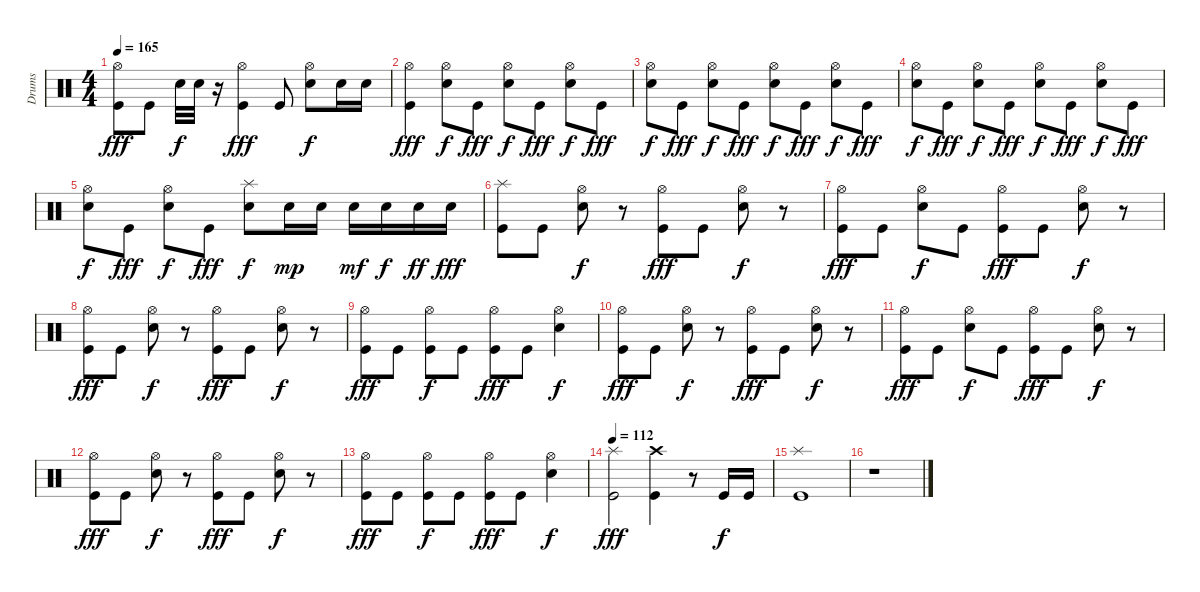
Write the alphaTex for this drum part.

\track ("Drums" "Drums") {instrument percussion}
\staff {score}
\articulation defaults
\ts (4 4)
\tempo 165
\clef neutral
\ks c
("Hi-Hat (open)" "Kick (hit)").8{dy fff} "Kick (hit)".8 "Snare (hit) 2".32{dy f} "Snare (hit) 2".32 r.16 ("Hi-Hat (open)" "Kick (hit)").4{dy fff} "Kick (hit)".8 ("Hi-Hat (open)" "Snare (hit) 2").8{dy f} "Snare (hit) 2".16 "Snare (hit) 2".16 |
("Hi-Hat (open)" "Kick (hit)").4{dy fff} ("Hi-Hat (open)" "Snare (hit) 2").8{dy f} "Kick (hit)".8{dy fff} ("Hi-Hat (open)" "Snare (hit) 2").8{dy f} "Kick (hit)".8{dy fff} ("Hi-Hat (open)" "Snare (hit) 2").8{dy f} "Kick (hit)".8{dy fff} |
("Hi-Hat (open)" "Snare (hit) 2").8{dy f} "Kick (hit)".8{dy fff} ("Hi-Hat (open)" "Snare (hit) 2").8{dy f} "Kick (hit)".8{dy fff} ("Hi-Hat (open)" "Snare (hit) 2").8{dy f} "Kick (hit)".8{dy fff} ("Hi-Hat (open)" "Snare (hit) 2").8{dy f} "Kick (hit)".8{dy fff} |
("Hi-Hat (open)" "Snare (hit) 2").8{dy f} "Kick (hit)".8{dy fff} ("Hi-Hat (open)" "Snare (hit) 2").8{dy f} "Kick (hit)".8{dy fff} ("Hi-Hat (open)" "Snare (hit) 2").8{dy f} "Kick (hit)".8{dy fff} ("Hi-Hat (open)" "Snare (hit) 2").8{dy f} "Kick (hit)".8{dy fff} |
("Hi-Hat (open)" "Snare (hit) 2").8{dy f} "Kick (hit)".8{dy fff} ("Hi-Hat (open)" "Snare (hit) 2").8{dy f} "Kick (hit)".8{dy fff} ("Splash (hit)" "Snare (hit) 2").8{dy f} "Snare (hit) 2".16{dy mp} "Snare (hit) 2".16 "Snare (hit) 2".16{dy mf} "Snare (hit) 2".16{dy f} "Snare (hit) 2".16{dy ff} "Snare (hit) 2".16{dy fff} |
("Splash (hit)" "Kick (hit)").8 "Kick (hit)".8 ("Hi-Hat (open)" "Snare (hit) 2").8{dy f} r.8 ("Hi-Hat (open)" "Kick (hit)").8{dy fff} "Kick (hit)".8 ("Hi-Hat (open)" "Snare (hit) 2").8{dy f} r.8 |
("Hi-Hat (open)" "Kick (hit)").8{dy fff} "Kick (hit)".8 ("Hi-Hat (open)" "Snare (hit) 2").8{dy f} "Kick (hit)".8 ("Hi-Hat (open)" "Kick (hit)").8{dy fff} "Kick (hit)".8 ("Hi-Hat (open)" "Snare (hit) 2").8{dy f} r.8 |
("Hi-Hat (open)" "Kick (hit)").8{dy fff} "Kick (hit)".8 ("Hi-Hat (open)" "Snare (hit) 2").8{dy f} r.8 ("Hi-Hat (open)" "Kick (hit)").8{dy fff} "Kick (hit)".8 ("Hi-Hat (open)" "Snare (hit) 2").8{dy f} r.8 |
("Hi-Hat (open)" "Kick (hit)").8{dy fff} "Kick (hit)".8 ("Hi-Hat (open)" "Kick (hit)").8{dy f} "Kick (hit)".8 ("Hi-Hat (open)" "Kick (hit)").8{dy fff} "Kick (hit)".8 ("Hi-Hat (open)" "Snare (hit) 2").4{dy f} |
("Hi-Hat (open)" "Kick (hit)").8{dy fff} "Kick (hit)".8 ("Hi-Hat (open)" "Snare (hit) 2").8{dy f} r.8 ("Hi-Hat (open)" "Kick (hit)").8{dy fff} "Kick (hit)".8 ("Hi-Hat (open)" "Snare (hit) 2").8{dy f} r.8 |
("Hi-Hat (open)" "Kick (hit)").8{dy fff} "Kick (hit)".8 ("Hi-Hat (open)" "Snare (hit) 2").8{dy f} "Kick (hit)".8 ("Hi-Hat (open)" "Kick (hit)").8{dy fff} "Kick (hit)".8 ("Hi-Hat (open)" "Snare (hit) 2").8{dy f} r.8 |
("Hi-Hat (open)" "Kick (hit)").8{dy fff} "Kick (hit)".8 ("Hi-Hat (open)" "Snare (hit) 2").8{dy f} r.8 ("Hi-Hat (open)" "Kick (hit)").8{dy fff} "Kick (hit)".8 ("Hi-Hat (open)" "Snare (hit) 2").8{dy f} r.8 |
("Hi-Hat (open)" "Kick (hit)").8{dy fff} "Kick (hit)".8 ("Hi-Hat (open)" "Kick (hit)").8{dy f} "Kick (hit)".8 ("Hi-Hat (open)" "Kick (hit)").8{dy fff} "Kick (hit)".8 ("Hi-Hat (open)" "Snare (hit) 2").4{dy f} |
\tempo 112
("Splash (hit)" "Kick (hit)").2{dy fff} ("Crash high (hit)" "Kick (hit)").4 r.8 "Kick (hit)".16{dy f} "Kick (hit)".16 |
("Splash (hit)" "Kick (hit)").1 |
r.1
